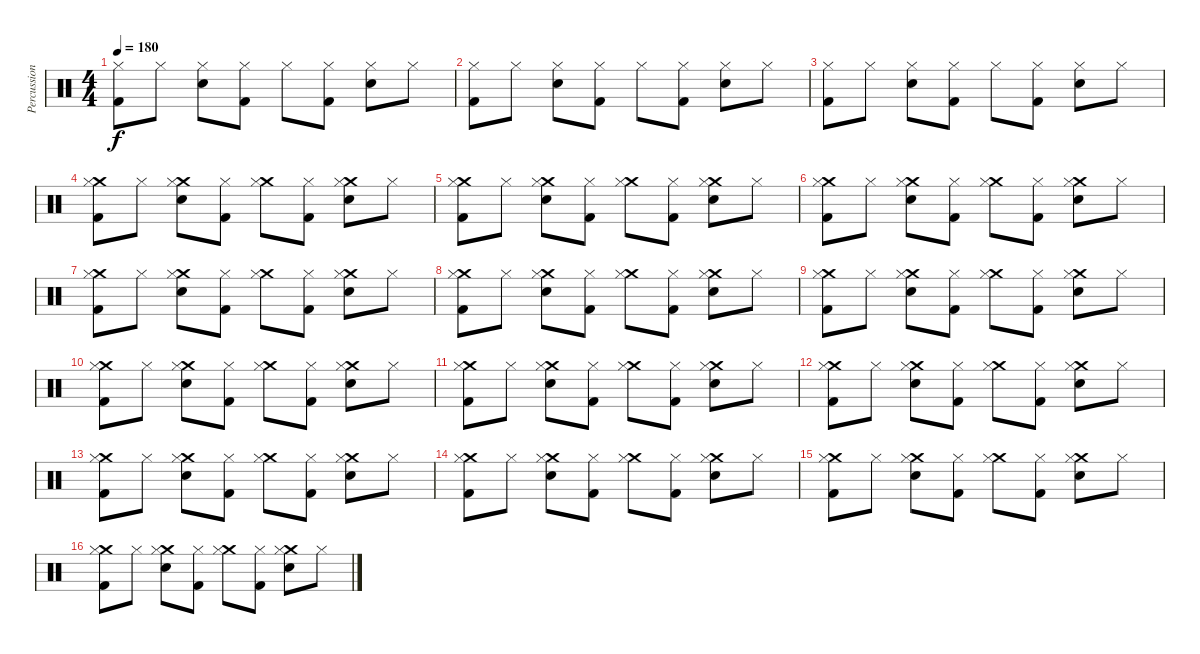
\track ("Percussion" "Percussion") {instrument percussion}
\staff {score}
\articulation defaults
\ts (4 4)
\tempo 180
\clef neutral
\ks c
("Hi-Hat (closed)" "Kick (hit) 2").8{dy f} "Hi-Hat (closed)".8 ("Hi-Hat (closed)" "Snare (hit) 2").8 ("Hi-Hat (closed)" "Kick (hit) 2").8 "Hi-Hat (closed)".8 ("Hi-Hat (closed)" "Kick (hit) 2").8 ("Hi-Hat (closed)" "Snare (hit) 2").8 "Hi-Hat (closed)".8 |
("Hi-Hat (closed)" "Kick (hit) 2").8 "Hi-Hat (closed)".8 ("Hi-Hat (closed)" "Snare (hit) 2").8 ("Hi-Hat (closed)" "Kick (hit) 2").8 "Hi-Hat (closed)".8 ("Hi-Hat (closed)" "Kick (hit) 2").8 ("Hi-Hat (closed)" "Snare (hit) 2").8 "Hi-Hat (closed)".8 |
("Hi-Hat (closed)" "Kick (hit) 2").8 "Hi-Hat (closed)".8 ("Hi-Hat (closed)" "Snare (hit) 2").8 ("Hi-Hat (closed)" "Kick (hit) 2").8 "Hi-Hat (closed)".8 ("Hi-Hat (closed)" "Kick (hit) 2").8 ("Hi-Hat (closed)" "Snare (hit) 2").8 "Hi-Hat (closed)".8 |
("Crash medium (hit)" "Hi-Hat (closed)" "Kick (hit) 2").8 "Hi-Hat (closed)".8 ("Crash medium (hit)" "Hi-Hat (closed)" "Snare (hit) 2").8 ("Hi-Hat (closed)" "Kick (hit) 2").8 ("Crash medium (hit)" "Hi-Hat (closed)").8 ("Hi-Hat (closed)" "Kick (hit) 2").8 ("Crash medium (hit)" "Hi-Hat (closed)" "Snare (hit) 2").8 "Hi-Hat (closed)".8 |
("Crash medium (hit)" "Hi-Hat (closed)" "Kick (hit) 2").8 "Hi-Hat (closed)".8 ("Crash medium (hit)" "Hi-Hat (closed)" "Snare (hit) 2").8 ("Hi-Hat (closed)" "Kick (hit) 2").8 ("Crash medium (hit)" "Hi-Hat (closed)").8 ("Hi-Hat (closed)" "Kick (hit) 2").8 ("Crash medium (hit)" "Hi-Hat (closed)" "Snare (hit) 2").8 "Hi-Hat (closed)".8 |
("Crash medium (hit)" "Hi-Hat (closed)" "Kick (hit) 2").8 "Hi-Hat (closed)".8 ("Crash medium (hit)" "Hi-Hat (closed)" "Snare (hit) 2").8 ("Hi-Hat (closed)" "Kick (hit) 2").8 ("Crash medium (hit)" "Hi-Hat (closed)").8 ("Hi-Hat (closed)" "Kick (hit) 2").8 ("Crash medium (hit)" "Hi-Hat (closed)" "Snare (hit) 2").8 "Hi-Hat (closed)".8 |
("Crash medium (hit)" "Hi-Hat (closed)" "Kick (hit) 2").8 "Hi-Hat (closed)".8 ("Crash medium (hit)" "Hi-Hat (closed)" "Snare (hit) 2").8 ("Hi-Hat (closed)" "Kick (hit) 2").8 ("Crash medium (hit)" "Hi-Hat (closed)").8 ("Hi-Hat (closed)" "Kick (hit) 2").8 ("Crash medium (hit)" "Hi-Hat (closed)" "Snare (hit) 2").8 "Hi-Hat (closed)".8 |
("Crash medium (hit)" "Hi-Hat (closed)" "Kick (hit) 2").8 "Hi-Hat (closed)".8 ("Crash medium (hit)" "Hi-Hat (closed)" "Snare (hit) 2").8 ("Hi-Hat (closed)" "Kick (hit) 2").8 ("Crash medium (hit)" "Hi-Hat (closed)").8 ("Hi-Hat (closed)" "Kick (hit) 2").8 ("Crash medium (hit)" "Hi-Hat (closed)" "Snare (hit) 2").8 "Hi-Hat (closed)".8 |
("Crash medium (hit)" "Hi-Hat (closed)" "Kick (hit) 2").8 "Hi-Hat (closed)".8 ("Crash medium (hit)" "Hi-Hat (closed)" "Snare (hit) 2").8 ("Hi-Hat (closed)" "Kick (hit) 2").8 ("Crash medium (hit)" "Hi-Hat (closed)").8 ("Hi-Hat (closed)" "Kick (hit) 2").8 ("Crash medium (hit)" "Hi-Hat (closed)" "Snare (hit) 2").8 "Hi-Hat (closed)".8 |
("Crash medium (hit)" "Hi-Hat (closed)" "Kick (hit) 2").8 "Hi-Hat (closed)".8 ("Crash medium (hit)" "Hi-Hat (closed)" "Snare (hit) 2").8 ("Hi-Hat (closed)" "Kick (hit) 2").8 ("Crash medium (hit)" "Hi-Hat (closed)").8 ("Hi-Hat (closed)" "Kick (hit) 2").8 ("Crash medium (hit)" "Hi-Hat (closed)" "Snare (hit) 2").8 "Hi-Hat (closed)".8 |
("Crash medium (hit)" "Hi-Hat (closed)" "Kick (hit) 2").8 "Hi-Hat (closed)".8 ("Crash medium (hit)" "Hi-Hat (closed)" "Snare (hit) 2").8 ("Hi-Hat (closed)" "Kick (hit) 2").8 ("Crash medium (hit)" "Hi-Hat (closed)").8 ("Hi-Hat (closed)" "Kick (hit) 2").8 ("Crash medium (hit)" "Hi-Hat (closed)" "Snare (hit) 2").8 "Hi-Hat (closed)".8 |
("Crash medium (hit)" "Hi-Hat (closed)" "Kick (hit) 2").8 "Hi-Hat (closed)".8 ("Crash medium (hit)" "Hi-Hat (closed)" "Snare (hit) 2").8 ("Hi-Hat (closed)" "Kick (hit) 2").8 ("Crash medium (hit)" "Hi-Hat (closed)").8 ("Hi-Hat (closed)" "Kick (hit) 2").8 ("Crash medium (hit)" "Hi-Hat (closed)" "Snare (hit) 2").8 "Hi-Hat (closed)".8 |
("Crash medium (hit)" "Hi-Hat (closed)" "Kick (hit) 2").8 "Hi-Hat (closed)".8 ("Crash medium (hit)" "Hi-Hat (closed)" "Snare (hit) 2").8 ("Hi-Hat (closed)" "Kick (hit) 2").8 ("Crash medium (hit)" "Hi-Hat (closed)").8 ("Hi-Hat (closed)" "Kick (hit) 2").8 ("Crash medium (hit)" "Hi-Hat (closed)" "Snare (hit) 2").8 "Hi-Hat (closed)".8 |
("Crash medium (hit)" "Hi-Hat (closed)" "Kick (hit) 2").8 "Hi-Hat (closed)".8 ("Crash medium (hit)" "Hi-Hat (closed)" "Snare (hit) 2").8 ("Hi-Hat (closed)" "Kick (hit) 2").8 ("Crash medium (hit)" "Hi-Hat (closed)").8 ("Hi-Hat (closed)" "Kick (hit) 2").8 ("Crash medium (hit)" "Hi-Hat (closed)" "Snare (hit) 2").8 "Hi-Hat (closed)".8 |
("Crash medium (hit)" "Hi-Hat (closed)" "Kick (hit) 2").8 "Hi-Hat (closed)".8 ("Crash medium (hit)" "Hi-Hat (closed)" "Snare (hit) 2").8 ("Hi-Hat (closed)" "Kick (hit) 2").8 ("Crash medium (hit)" "Hi-Hat (closed)").8 ("Hi-Hat (closed)" "Kick (hit) 2").8 ("Crash medium (hit)" "Hi-Hat (closed)" "Snare (hit) 2").8 "Hi-Hat (closed)".8 |
("Crash medium (hit)" "Hi-Hat (closed)" "Kick (hit) 2").8 "Hi-Hat (closed)".8 ("Crash medium (hit)" "Hi-Hat (closed)" "Snare (hit) 2").8 ("Hi-Hat (closed)" "Kick (hit) 2").8 ("Crash medium (hit)" "Hi-Hat (closed)").8 ("Hi-Hat (closed)" "Kick (hit) 2").8 ("Crash medium (hit)" "Hi-Hat (closed)" "Snare (hit) 2").8 "Hi-Hat (closed)".8
